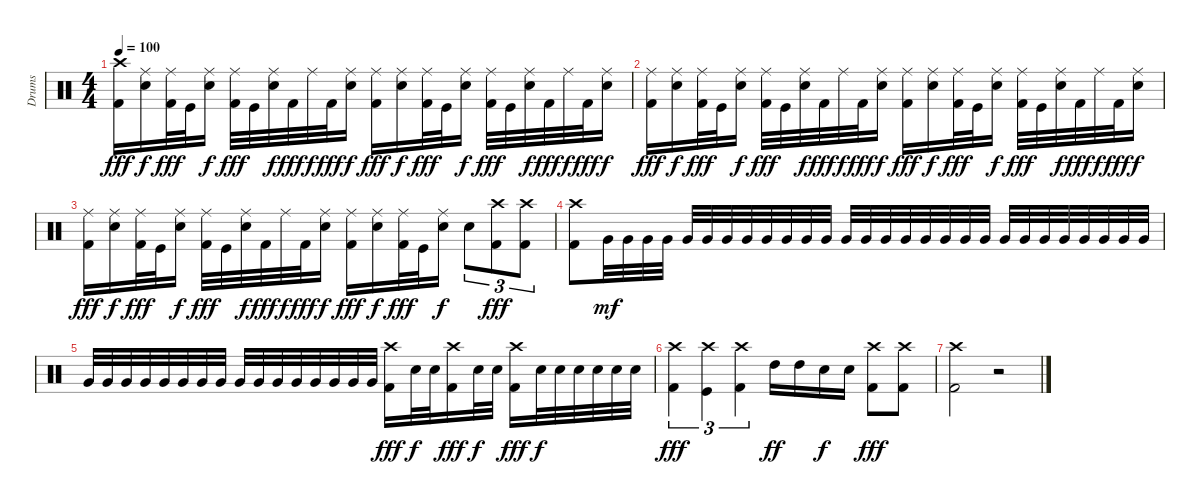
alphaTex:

\track ("Drums" "Drums") {instrument percussion}
\staff {score}
\articulation defaults
\ts (4 4)
\tempo 100
\clef neutral
\ks c
("Crash high (hit)" "Kick (hit) 2").16{dy fff} ("Ride (middle)" "Electric Snare (hit)").16{dy f} ("Ride (middle)" "Kick (hit) 2").32{dy fff} "Kick (hit)".32 ("Ride (middle)" "Electric Snare (hit)").16{dy f} ("Ride (middle)" "Kick (hit) 2").32{dy fff} "Kick (hit)".32 ("Ride (middle)" "Electric Snare (hit)").32{dy f} "Kick (hit) 2".32{dy fff} "Ride (middle)".32{dy f} "Kick (hit) 2".32{dy fff} ("Ride (middle)" "Electric Snare (hit)").16{dy f} ("Ride (middle)" "Kick (hit) 2").16{dy fff} ("Ride (middle)" "Electric Snare (hit)").16{dy f} ("Ride (middle)" "Kick (hit) 2").32{dy fff} "Kick (hit)".32 ("Ride (middle)" "Electric Snare (hit)").16{dy f} ("Ride (middle)" "Kick (hit) 2").32{dy fff} "Kick (hit)".32 ("Ride (middle)" "Electric Snare (hit)").32{dy f} "Kick (hit) 2".32{dy fff} "Ride (middle)".32{dy f} "Kick (hit) 2".32{dy fff} ("Ride (middle)" "Electric Snare (hit)").16{dy f} |
("Ride (middle)" "Kick (hit) 2").16{dy fff} ("Ride (middle)" "Electric Snare (hit)").16{dy f} ("Ride (middle)" "Kick (hit) 2").32{dy fff} "Kick (hit)".32 ("Ride (middle)" "Electric Snare (hit)").16{dy f} ("Ride (middle)" "Kick (hit) 2").32{dy fff} "Kick (hit)".32 ("Ride (middle)" "Electric Snare (hit)").32{dy f} "Kick (hit) 2".32{dy fff} "Ride (middle)".32{dy f} "Kick (hit) 2".32{dy fff} ("Ride (middle)" "Electric Snare (hit)").16{dy f} ("Ride (middle)" "Kick (hit) 2").16{dy fff} ("Ride (middle)" "Electric Snare (hit)").16{dy f} ("Ride (middle)" "Kick (hit) 2").32{dy fff} "Kick (hit)".32 ("Ride (middle)" "Electric Snare (hit)").16{dy f} ("Ride (middle)" "Kick (hit) 2").32{dy fff} "Kick (hit)".32 ("Ride (middle)" "Electric Snare (hit)").32{dy f} "Kick (hit) 2".32{dy fff} "Ride (middle)".32{dy f} "Kick (hit) 2".32{dy fff} ("Ride (middle)" "Electric Snare (hit)").16{dy f} |
("Ride (middle)" "Kick (hit) 2").16{dy fff} ("Ride (middle)" "Electric Snare (hit)").16{dy f} ("Ride (middle)" "Kick (hit) 2").32{dy fff} "Kick (hit)".32 ("Ride (middle)" "Electric Snare (hit)").16{dy f} ("Ride (middle)" "Kick (hit) 2").32{dy fff} "Kick (hit)".32 ("Ride (middle)" "Electric Snare (hit)").32{dy f} "Kick (hit) 2".32{dy fff} "Ride (middle)".32{dy f} "Kick (hit) 2".32{dy fff} ("Ride (middle)" "Electric Snare (hit)").16{dy f} ("Ride (middle)" "Kick (hit) 2").16{dy fff} ("Ride (middle)" "Electric Snare (hit)").16{dy f} ("Ride (middle)" "Kick (hit) 2").32{dy fff} "Kick (hit)".32 ("Ride (middle)" "Electric Snare (hit)").16{dy f} "Electric Snare (hit)".8{tu (3 2)} ("Crash high (hit)" "Kick (hit) 2").8{tu (3 2) dy fff} ("Crash high (hit)" "Kick (hit) 2").8{tu (3 2)} |
("Crash high (hit)" "Kick (hit) 2").8 "Very Low Tom (hit)".32{dy mf} "Very Low Tom (hit)".32 "Very Low Tom (hit)".32 "Very Low Tom (hit)".32 "Very Low Tom (hit)".32 "Very Low Tom (hit)".32 "Very Low Tom (hit)".32 "Very Low Tom (hit)".32 "Very Low Tom (hit)".32 "Very Low Tom (hit)".32 "Very Low Tom (hit)".32 "Very Low Tom (hit)".32 "Very Low Tom (hit)".32 "Very Low Tom (hit)".32 "Very Low Tom (hit)".32 "Very Low Tom (hit)".32 "Very Low Tom (hit)".32 "Very Low Tom (hit)".32 "Very Low Tom (hit)".32 "Very Low Tom (hit)".32 "Very Low Tom (hit)".32 "Very Low Tom (hit)".32 "Very Low Tom (hit)".32 "Very Low Tom (hit)".32 "Very Low Tom (hit)".32 "Very Low Tom (hit)".32 "Very Low Tom (hit)".32 "Very Low Tom (hit)".32 |
"Very Low Tom (hit)".32 "Very Low Tom (hit)".32 "Very Low Tom (hit)".32 "Very Low Tom (hit)".32 "Very Low Tom (hit)".32 "Very Low Tom (hit)".32 "Very Low Tom (hit)".32 "Very Low Tom (hit)".32 "Very Low Tom (hit)".32 "Very Low Tom (hit)".32 "Very Low Tom (hit)".32 "Very Low Tom (hit)".32 "Very Low Tom (hit)".32 "Very Low Tom (hit)".32 "Very Low Tom (hit)".32 "Very Low Tom (hit)".32 ("Crash high (hit)" "Kick (hit) 2").16{dy fff} "Electric Snare (hit)".32{dy f} "Electric Snare (hit)".32 ("Crash high (hit)" "Kick (hit) 2").16{dy fff} "Electric Snare (hit)".32{dy f} "Electric Snare (hit)".32 ("Crash high (hit)" "Kick (hit) 2").16{dy fff} "Electric Snare (hit)".32{dy f} "Electric Snare (hit)".32 "Electric Snare (hit)".32 "Electric Snare (hit)".32 "Electric Snare (hit)".32 "Electric Snare (hit)".32 |
("Crash high (hit)" "Kick (hit) 2").4{tu (3 2) dy fff} ("Crash high (hit)" "Kick (hit)").4{tu (3 2)} ("Crash high (hit)" "Kick (hit) 2").4{tu (3 2)} "High Tom (hit)".16{dy ff} "High Tom (hit)".16 "Electric Snare (hit)".16{dy f} "Electric Snare (hit)".16 ("Crash high (hit)" "Kick (hit) 2").8{dy fff} ("Crash high (hit)" "Kick (hit) 2").8 |
("Crash high (hit)" "Kick (hit) 2").2 r.2
